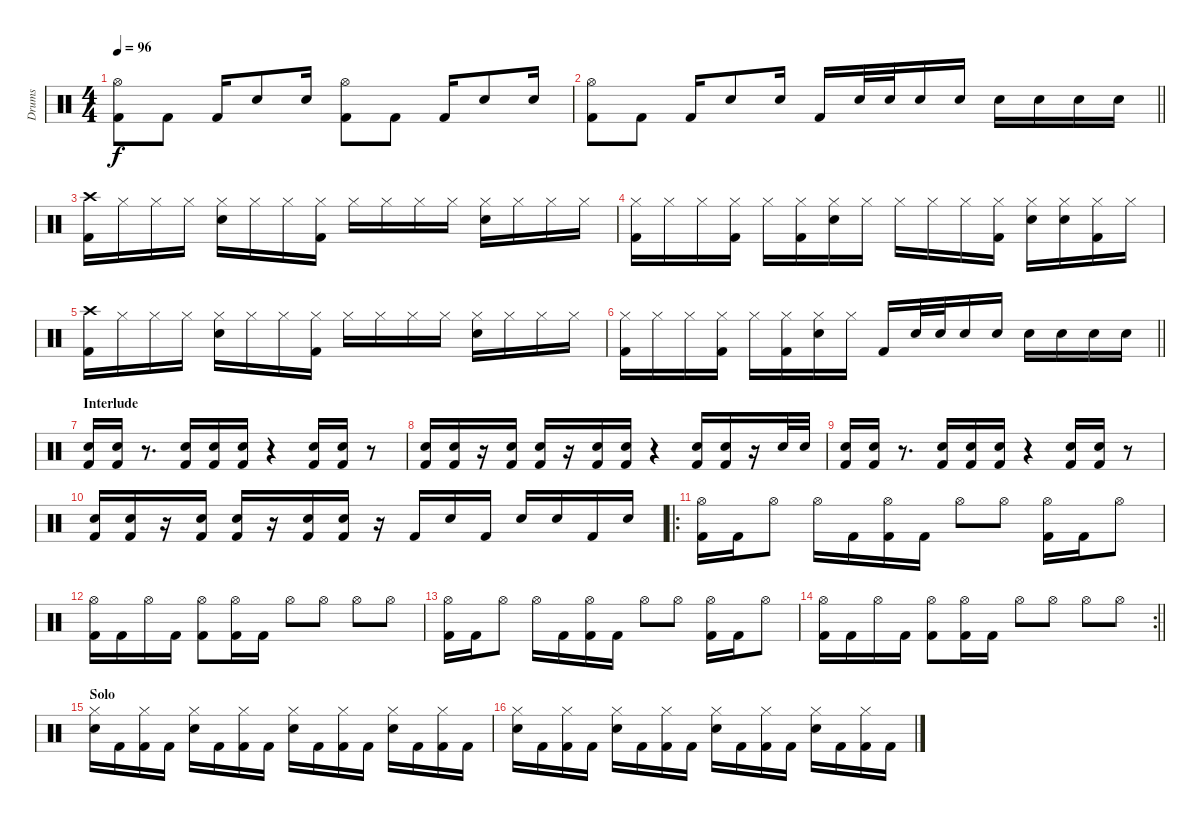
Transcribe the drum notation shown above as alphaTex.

\track ("Drums" "Drums") {instrument percussion}
\staff {score}
\articulation defaults
\ts (4 4)
\tempo 96
\clef neutral
\ks c
("Hi-Hat (open)" "Kick (hit) 2").8{dy f} "Kick (hit) 2".8 "Kick (hit) 2".16 "Electric Snare (hit)".8 "Snare (hit) 2".16 ("Hi-Hat (open)" "Kick (hit) 2").8 "Kick (hit) 2".8 "Kick (hit) 2".16 "Electric Snare (hit)".8 "Snare (hit) 2".16 |
\barLineRight lightlight
("Hi-Hat (open)" "Kick (hit) 2").8 "Kick (hit) 2".8 "Kick (hit) 2".16 "Electric Snare (hit)".8 "Snare (hit) 2".16 "Kick (hit) 2".16 "Electric Snare (hit)".32 "Electric Snare (hit)".32 "Electric Snare (hit)".16 "Electric Snare (hit)".16 "Snare (hit) 2".16 "Snare (hit) 2".16 "Snare (hit) 2".16 "Snare (hit) 2".16 |
\section ("" "")
("Crash high (hit)" "Kick (hit) 2").16 "Hi-Hat (closed)".16 "Hi-Hat (closed)".16 "Hi-Hat (closed)".16 ("Hi-Hat (closed)" "Electric Snare (hit)").16 "Hi-Hat (closed)".16 "Hi-Hat (closed)".16 ("Hi-Hat (closed)" "Kick (hit) 2").16 "Hi-Hat (closed)".16 "Hi-Hat (closed)".16 "Hi-Hat (closed)".16 "Hi-Hat (closed)".16 ("Hi-Hat (closed)" "Electric Snare (hit)").16 "Hi-Hat (closed)".16 "Hi-Hat (closed)".16 "Hi-Hat (closed)".16 |
("Hi-Hat (closed)" "Kick (hit) 2").16 "Hi-Hat (closed)".16 "Hi-Hat (closed)".16 ("Hi-Hat (closed)" "Kick (hit) 2").16 "Hi-Hat (closed)".16 ("Hi-Hat (closed)" "Kick (hit) 2").16 ("Hi-Hat (closed)" "Electric Snare (hit)").16 "Hi-Hat (closed)".16 "Hi-Hat (closed)".16 "Hi-Hat (closed)".16 "Hi-Hat (closed)".16 ("Hi-Hat (closed)" "Kick (hit) 2").16 ("Hi-Hat (closed)" "Electric Snare (hit)").16 ("Hi-Hat (closed)" "Snare (hit) 2").16 ("Hi-Hat (closed)" "Kick (hit) 2").16 "Hi-Hat (closed)".16 |
("Crash high (hit)" "Kick (hit) 2").16 "Hi-Hat (closed)".16 "Hi-Hat (closed)".16 "Hi-Hat (closed)".16 ("Hi-Hat (closed)" "Electric Snare (hit)").16 "Hi-Hat (closed)".16 "Hi-Hat (closed)".16 ("Hi-Hat (closed)" "Kick (hit) 2").16 "Hi-Hat (closed)".16 "Hi-Hat (closed)".16 "Hi-Hat (closed)".16 "Hi-Hat (closed)".16 ("Hi-Hat (closed)" "Electric Snare (hit)").16 "Hi-Hat (closed)".16 "Hi-Hat (closed)".16 "Hi-Hat (closed)".16 |
\barLineRight lightlight
("Hi-Hat (closed)" "Kick (hit) 2").16 "Hi-Hat (closed)".16 "Hi-Hat (closed)".16 ("Hi-Hat (closed)" "Kick (hit) 2").16 "Hi-Hat (closed)".16 ("Hi-Hat (closed)" "Kick (hit) 2").16 ("Hi-Hat (closed)" "Electric Snare (hit)").16 "Hi-Hat (closed)".16 "Kick (hit) 2".16 "Snare (hit) 2".32 "Snare (hit) 2".32 "Snare (hit) 2".16 "Snare (hit) 2".16 "Snare (hit) 2".16 "Snare (hit) 2".16 "Snare (hit) 2".16 "Snare (hit) 2".16 |
\section ("" "Interlude")
("Snare (hit) 2" "Kick (hit) 2").16 ("Snare (hit) 2" "Kick (hit) 2").16 r.8{d} ("Snare (hit) 2" "Kick (hit) 2").16 ("Snare (hit) 2" "Kick (hit) 2").16 ("Snare (hit) 2" "Kick (hit) 2").16 r.4 ("Snare (hit) 2" "Kick (hit) 2").16 ("Snare (hit) 2" "Kick (hit) 2").16 r.8 |
("Snare (hit) 2" "Kick (hit) 2").16 ("Snare (hit) 2" "Kick (hit) 2").16 r.16 ("Snare (hit) 2" "Kick (hit) 2").16 ("Snare (hit) 2" "Kick (hit) 2").16 r.16 ("Snare (hit) 2" "Kick (hit) 2").16 ("Snare (hit) 2" "Kick (hit) 2").16 r.4 ("Snare (hit) 2" "Kick (hit) 2").16 ("Snare (hit) 2" "Kick (hit) 2").16 r.16 "Snare (hit) 2".32 "Snare (hit) 2".32 |
("Snare (hit) 2" "Kick (hit) 2").16 ("Snare (hit) 2" "Kick (hit) 2").16 r.8{d} ("Snare (hit) 2" "Kick (hit) 2").16 ("Snare (hit) 2" "Kick (hit) 2").16 ("Snare (hit) 2" "Kick (hit) 2").16 r.4 ("Snare (hit) 2" "Kick (hit) 2").16 ("Snare (hit) 2" "Kick (hit) 2").16 r.8 |
("Snare (hit) 2" "Kick (hit) 2").16 ("Snare (hit) 2" "Kick (hit) 2").16 r.16 ("Snare (hit) 2" "Kick (hit) 2").16 ("Snare (hit) 2" "Kick (hit) 2").16 r.16 ("Snare (hit) 2" "Kick (hit) 2").16 ("Snare (hit) 2" "Kick (hit) 2").16 r.16 "Kick (hit) 2".16 "Snare (hit) 2".16 "Kick (hit) 2".16 "Electric Snare (hit)".16 "Snare (hit) 2".16 "Kick (hit) 2".16 "Snare (hit) 2".16 |
\ro
("Hi-Hat (open)" "Kick (hit) 2").16 "Kick (hit) 2".16 "Hi-Hat (open)".8 "Hi-Hat (open)".16 "Kick (hit) 2".16 ("Hi-Hat (open)" "Kick (hit) 2").16 "Kick (hit) 2".16 "Hi-Hat (open)".8 "Hi-Hat (open)".8 ("Hi-Hat (open)" "Kick (hit) 2").16 "Kick (hit) 2".16 "Hi-Hat (open)".8 |
("Hi-Hat (open)" "Kick (hit) 2").16 "Kick (hit) 2".16 "Hi-Hat (open)".16 "Kick (hit) 2".16 ("Hi-Hat (open)" "Kick (hit) 2").8 ("Hi-Hat (open)" "Kick (hit) 2").16 "Kick (hit) 2".16 "Hi-Hat (open)".8 "Hi-Hat (open)".8 "Hi-Hat (open)".8 "Hi-Hat (open)".8 |
("Hi-Hat (open)" "Kick (hit) 2").16 "Kick (hit) 2".16 "Hi-Hat (open)".8 "Hi-Hat (open)".16 "Kick (hit) 2".16 ("Hi-Hat (open)" "Kick (hit) 2").16 "Kick (hit) 2".16 "Hi-Hat (open)".8 "Hi-Hat (open)".8 ("Hi-Hat (open)" "Kick (hit) 2").16 "Kick (hit) 2".16 "Hi-Hat (open)".8 |
\rc 2
\barLineRight lightlight
("Hi-Hat (open)" "Kick (hit) 2").16 "Kick (hit) 2".16 "Hi-Hat (open)".16 "Kick (hit) 2".16 ("Hi-Hat (open)" "Kick (hit) 2").8 ("Hi-Hat (open)" "Kick (hit) 2").16 "Kick (hit) 2".16 "Hi-Hat (open)".8 "Hi-Hat (open)".8 "Hi-Hat (open)".8 "Hi-Hat (open)".8 |
\section ("" "Solo")
("Hi-Hat (closed)" "Snare (hit) 2").16 "Kick (hit) 2".16 ("Hi-Hat (closed)" "Kick (hit) 2").16 "Kick (hit) 2".16 ("Hi-Hat (closed)" "Snare (hit) 2").16 "Kick (hit) 2".16 ("Hi-Hat (closed)" "Kick (hit) 2").16 "Kick (hit) 2".16 ("Hi-Hat (closed)" "Snare (hit) 2").16 "Kick (hit) 2".16 ("Hi-Hat (closed)" "Kick (hit) 2").16 "Kick (hit) 2".16 ("Hi-Hat (closed)" "Snare (hit) 2").16 "Kick (hit) 2".16 ("Hi-Hat (closed)" "Kick (hit) 2").16 "Kick (hit) 2".16 |
("Hi-Hat (closed)" "Snare (hit) 2").16 "Kick (hit) 2".16 ("Hi-Hat (closed)" "Kick (hit) 2").16 "Kick (hit) 2".16 ("Hi-Hat (closed)" "Snare (hit) 2").16 "Kick (hit) 2".16 ("Hi-Hat (closed)" "Kick (hit) 2").16 "Kick (hit) 2".16 ("Hi-Hat (closed)" "Snare (hit) 2").16 "Kick (hit) 2".16 ("Hi-Hat (closed)" "Kick (hit) 2").16 "Kick (hit) 2".16 ("Hi-Hat (closed)" "Snare (hit) 2").16 "Kick (hit) 2".16 ("Hi-Hat (closed)" "Kick (hit) 2").16 "Kick (hit) 2".16
